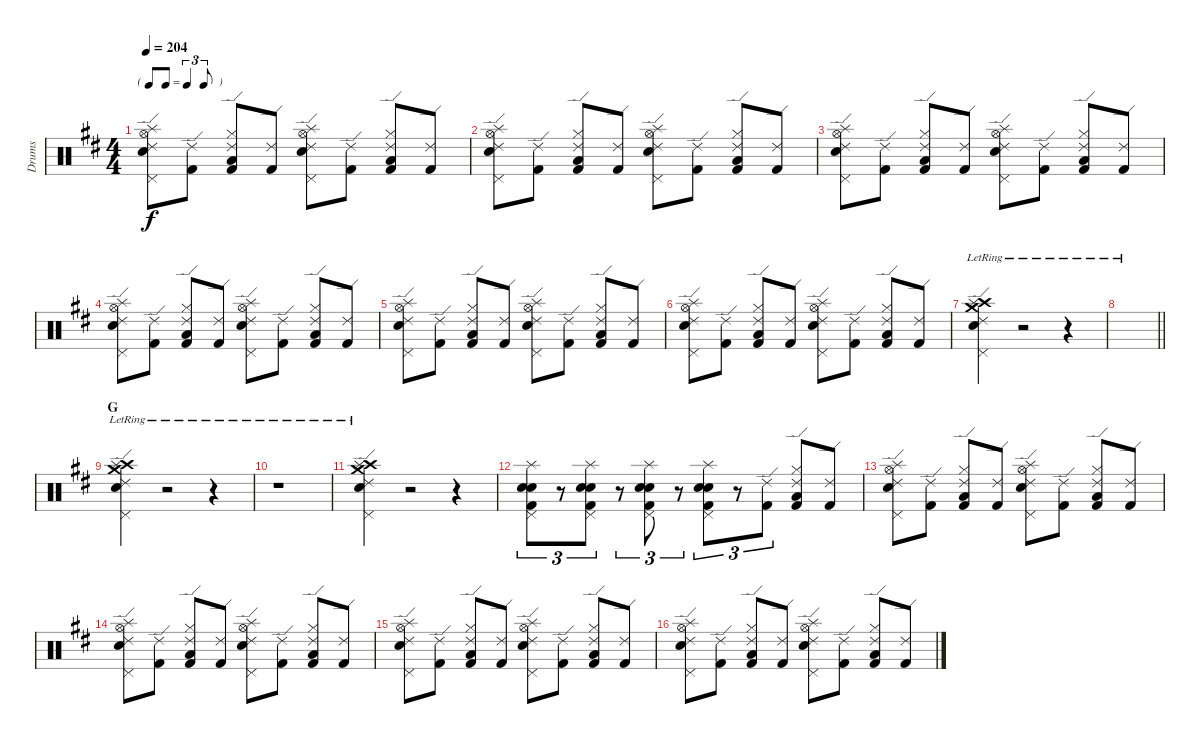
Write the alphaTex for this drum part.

\track ("Drums" "Drums") {instrument percussion}
\staff {score}
\articulation defaults
\ts (4 4)
\tf triplet8th
\tempo 204
\clef neutral
\ks d
("Hi-Hat (open)" "Splash (hit)" "Snare (hit) 2" "Ride (edge) 2" "Pedal Hi-Hat (hit)").8{dy f} ("Kick (hit) 2" "Ride (edge) 2").8 ("Hi-Hat (closed)" "Low Floor Tom (hit)" "Ride (edge) 2" "Kick (hit) 2").8 ("Kick (hit) 2" "Ride (edge) 2").8 ("Hi-Hat (open)" "Splash (hit)" "Snare (hit) 2" "Ride (edge) 2" "Pedal Hi-Hat (hit)").8 ("Kick (hit) 2" "Ride (edge) 2").8 ("Hi-Hat (closed)" "Low Floor Tom (hit)" "Ride (edge) 2" "Kick (hit) 2").8 ("Kick (hit) 2" "Ride (edge) 2").8 |
("Hi-Hat (open)" "Splash (hit)" "Snare (hit) 2" "Ride (edge) 2" "Pedal Hi-Hat (hit)").8 ("Kick (hit) 2" "Ride (edge) 2").8 ("Hi-Hat (closed)" "Low Floor Tom (hit)" "Ride (edge) 2" "Kick (hit) 2").8 ("Kick (hit) 2" "Ride (edge) 2").8 ("Hi-Hat (open)" "Splash (hit)" "Snare (hit) 2" "Ride (edge) 2" "Pedal Hi-Hat (hit)").8 ("Kick (hit) 2" "Ride (edge) 2").8 ("Hi-Hat (closed)" "Low Floor Tom (hit)" "Ride (edge) 2" "Kick (hit) 2").8 ("Kick (hit) 2" "Ride (edge) 2").8 |
("Hi-Hat (open)" "Splash (hit)" "Snare (hit) 2" "Ride (edge) 2" "Pedal Hi-Hat (hit)").8 ("Kick (hit) 2" "Ride (edge) 2").8 ("Hi-Hat (closed)" "Low Floor Tom (hit)" "Ride (edge) 2" "Kick (hit) 2").8 ("Kick (hit) 2" "Ride (edge) 2").8 ("Hi-Hat (open)" "Splash (hit)" "Snare (hit) 2" "Ride (edge) 2" "Pedal Hi-Hat (hit)").8 ("Kick (hit) 2" "Ride (edge) 2").8 ("Hi-Hat (closed)" "Low Floor Tom (hit)" "Ride (edge) 2" "Kick (hit) 2").8 ("Kick (hit) 2" "Ride (edge) 2").8 |
("Hi-Hat (open)" "Splash (hit)" "Snare (hit) 2" "Ride (edge) 2" "Pedal Hi-Hat (hit)").8 ("Kick (hit) 2" "Ride (edge) 2").8 ("Hi-Hat (closed)" "Low Floor Tom (hit)" "Ride (edge) 2" "Kick (hit) 2").8 ("Kick (hit) 2" "Ride (edge) 2").8 ("Hi-Hat (open)" "Splash (hit)" "Snare (hit) 2" "Ride (edge) 2" "Pedal Hi-Hat (hit)").8 ("Kick (hit) 2" "Ride (edge) 2").8 ("Hi-Hat (closed)" "Low Floor Tom (hit)" "Ride (edge) 2" "Kick (hit) 2").8 ("Kick (hit) 2" "Ride (edge) 2").8 |
("Hi-Hat (open)" "Splash (hit)" "Snare (hit) 2" "Ride (edge) 2" "Pedal Hi-Hat (hit)").8 ("Kick (hit) 2" "Ride (edge) 2").8 ("Hi-Hat (closed)" "Low Floor Tom (hit)" "Ride (edge) 2" "Kick (hit) 2").8 ("Kick (hit) 2" "Ride (edge) 2").8 ("Hi-Hat (open)" "Splash (hit)" "Snare (hit) 2" "Ride (edge) 2" "Pedal Hi-Hat (hit)").8 ("Kick (hit) 2" "Ride (edge) 2").8 ("Hi-Hat (closed)" "Low Floor Tom (hit)" "Ride (edge) 2" "Kick (hit) 2").8 ("Kick (hit) 2" "Ride (edge) 2").8 |
("Hi-Hat (open)" "Splash (hit)" "Snare (hit) 2" "Ride (edge) 2" "Pedal Hi-Hat (hit)").8 ("Kick (hit) 2" "Ride (edge) 2").8 ("Hi-Hat (closed)" "Low Floor Tom (hit)" "Ride (edge) 2" "Kick (hit) 2").8 ("Kick (hit) 2" "Ride (edge) 2").8 ("Hi-Hat (open)" "Splash (hit)" "Snare (hit) 2" "Ride (edge) 2" "Pedal Hi-Hat (hit)").8 ("Kick (hit) 2" "Ride (edge) 2").8 ("Hi-Hat (closed)" "Low Floor Tom (hit)" "Ride (edge) 2" "Kick (hit) 2").8 ("Kick (hit) 2" "Ride (edge) 2").8 |
("Ride (edge) 2"{lr} "Crash medium (hit)"{lr} "Crash high (hit)"{lr} "Pedal Hi-Hat (hit)"{lr} "Splash (hit)"{lr} "Snare (hit) 2"{lr}).4 r.2 r.4 |
\barLineRight lightlight
|
\section ("" "G")
("Ride (edge) 2"{lr} "Crash medium (hit)"{lr} "Crash high (hit)"{lr} "Pedal Hi-Hat (hit)"{lr} "Splash (hit)"{lr} "Snare (hit) 2"{lr}).4 r.2 r.4 |
r.1 |
("Ride (edge) 2"{lr} "Crash medium (hit)"{lr} "Crash high (hit)"{lr} "Pedal Hi-Hat (hit)"{lr} "Splash (hit)"{lr} "Snare (hit) 2"{lr}).4 r.2 r.4 |
("Splash (hit)" "Kick (hit) 2" "Pedal Hi-Hat (hit)" "Snare (hit) 2" "Snare (hit) 2").8{tu (3 2)} r.8{tu (3 2)} ("Splash (hit)" "Kick (hit) 2" "Pedal Hi-Hat (hit)" "Snare (hit) 2" "Snare (hit) 2").8{tu (3 2)} r.8{tu (3 2)} ("Splash (hit)" "Kick (hit) 2" "Pedal Hi-Hat (hit)" "Snare (hit) 2" "Snare (hit) 2").8{tu (3 2)} r.8{tu (3 2)} ("Splash (hit)" "Kick (hit) 2" "Pedal Hi-Hat (hit)" "Snare (hit) 2" "Snare (hit) 2").8{tu (3 2)} r.8{tu (3 2)} ("Kick (hit) 2" "Ride (edge) 2").8{tu (3 2)} ("Hi-Hat (closed)" "Low Floor Tom (hit)" "Ride (edge) 2" "Kick (hit) 2").8 ("Kick (hit) 2" "Ride (edge) 2").8 |
("Hi-Hat (open)" "Splash (hit)" "Snare (hit) 2" "Ride (edge) 2" "Pedal Hi-Hat (hit)").8 ("Kick (hit) 2" "Ride (edge) 2").8 ("Hi-Hat (closed)" "Low Floor Tom (hit)" "Ride (edge) 2" "Kick (hit) 2").8 ("Kick (hit) 2" "Ride (edge) 2").8 ("Hi-Hat (open)" "Splash (hit)" "Snare (hit) 2" "Ride (edge) 2" "Pedal Hi-Hat (hit)").8 ("Kick (hit) 2" "Ride (edge) 2").8 ("Hi-Hat (closed)" "Low Floor Tom (hit)" "Ride (edge) 2" "Kick (hit) 2").8 ("Kick (hit) 2" "Ride (edge) 2").8 |
("Hi-Hat (open)" "Splash (hit)" "Snare (hit) 2" "Ride (edge) 2" "Pedal Hi-Hat (hit)").8 ("Kick (hit) 2" "Ride (edge) 2").8 ("Hi-Hat (closed)" "Low Floor Tom (hit)" "Ride (edge) 2" "Kick (hit) 2").8 ("Kick (hit) 2" "Ride (edge) 2").8 ("Hi-Hat (open)" "Splash (hit)" "Snare (hit) 2" "Ride (edge) 2" "Pedal Hi-Hat (hit)").8 ("Kick (hit) 2" "Ride (edge) 2").8 ("Hi-Hat (closed)" "Low Floor Tom (hit)" "Ride (edge) 2" "Kick (hit) 2").8 ("Kick (hit) 2" "Ride (edge) 2").8 |
("Hi-Hat (open)" "Splash (hit)" "Snare (hit) 2" "Ride (edge) 2" "Pedal Hi-Hat (hit)").8 ("Kick (hit) 2" "Ride (edge) 2").8 ("Hi-Hat (closed)" "Low Floor Tom (hit)" "Ride (edge) 2" "Kick (hit) 2").8 ("Kick (hit) 2" "Ride (edge) 2").8 ("Hi-Hat (open)" "Splash (hit)" "Snare (hit) 2" "Ride (edge) 2" "Pedal Hi-Hat (hit)").8 ("Kick (hit) 2" "Ride (edge) 2").8 ("Hi-Hat (closed)" "Low Floor Tom (hit)" "Ride (edge) 2" "Kick (hit) 2").8 ("Kick (hit) 2" "Ride (edge) 2").8 |
("Hi-Hat (open)" "Splash (hit)" "Snare (hit) 2" "Ride (edge) 2" "Pedal Hi-Hat (hit)").8 ("Kick (hit) 2" "Ride (edge) 2").8 ("Hi-Hat (closed)" "Low Floor Tom (hit)" "Ride (edge) 2" "Kick (hit) 2").8 ("Kick (hit) 2" "Ride (edge) 2").8 ("Hi-Hat (open)" "Splash (hit)" "Snare (hit) 2" "Ride (edge) 2" "Pedal Hi-Hat (hit)").8 ("Kick (hit) 2" "Ride (edge) 2").8 ("Hi-Hat (closed)" "Low Floor Tom (hit)" "Ride (edge) 2" "Kick (hit) 2").8 ("Kick (hit) 2" "Ride (edge) 2").8
